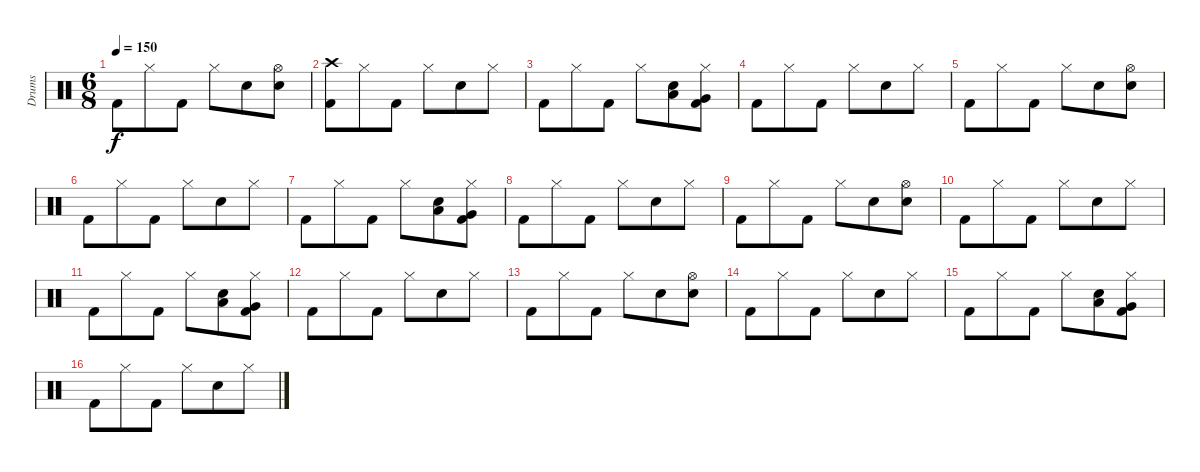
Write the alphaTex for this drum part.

\track ("Drums" "Drums") {mute instrument percussion}
\staff {score}
\articulation defaults
\ts (6 8)
\tempo 150
\clef neutral
\ks c "Kick (hit) 2".8{dy f} "Hi-Hat (closed)".8 "Kick (hit) 2".8 "Hi-Hat (closed)".8 "Electric Snare (hit)".8
("Hi-Hat (open)" "Electric Snare (hit)").8 |
("Crash high (hit)" "Kick (hit) 2").8 "Hi-Hat (closed)".8 "Kick (hit) 2".8 "Hi-Hat (closed)".8 "Electric Snare (hit)".8 "Hi-Hat (closed)".8 |
"Kick (hit) 2".8 "Hi-Hat (closed)".8 "Kick (hit) 2".8 "Hi-Hat (closed)".8 ("Low Tom (hit)" "Electric Snare (hit)").8 ("Very Low Tom (hit)" "Hi-Hat (closed)" "Kick (hit) 2").8 |
"Kick (hit) 2".8 "Hi-Hat (closed)".8 "Kick (hit) 2".8 "Hi-Hat (closed)".8 "Electric Snare (hit)".8 "Hi-Hat (closed)".8 |
"Kick (hit) 2".8 "Hi-Hat (closed)".8 "Kick (hit) 2".8 "Hi-Hat (closed)".8 "Electric Snare (hit)".8 ("Hi-Hat (open)" "Electric Snare (hit)").8 |
"Kick (hit) 2".8 "Hi-Hat (closed)".8 "Kick (hit) 2".8 "Hi-Hat (closed)".8 "Electric Snare (hit)".8 "Hi-Hat (closed)".8 |
"Kick (hit) 2".8 "Hi-Hat (closed)".8 "Kick (hit) 2".8 "Hi-Hat (closed)".8 ("Low Tom (hit)" "Electric Snare (hit)").8 ("Very Low Tom (hit)" "Hi-Hat (closed)" "Kick (hit) 2").8 |
"Kick (hit) 2".8 "Hi-Hat (closed)".8 "Kick (hit) 2".8 "Hi-Hat (closed)".8 "Electric Snare (hit)".8 "Hi-Hat (closed)".8 |
"Kick (hit) 2".8 "Hi-Hat (closed)".8 "Kick (hit) 2".8 "Hi-Hat (closed)".8 "Electric Snare (hit)".8 ("Hi-Hat (open)" "Electric Snare (hit)").8 |
"Kick (hit) 2".8 "Hi-Hat (closed)".8 "Kick (hit) 2".8 "Hi-Hat (closed)".8 "Electric Snare (hit)".8 "Hi-Hat (closed)".8 |
"Kick (hit) 2".8 "Hi-Hat (closed)".8 "Kick (hit) 2".8 "Hi-Hat (closed)".8 ("Low Tom (hit)" "Electric Snare (hit)").8 ("Very Low Tom (hit)" "Hi-Hat (closed)" "Kick (hit) 2").8 |
"Kick (hit) 2".8 "Hi-Hat (closed)".8 "Kick (hit) 2".8 "Hi-Hat (closed)".8 "Electric Snare (hit)".8 "Hi-Hat (closed)".8 |
"Kick (hit) 2".8 "Hi-Hat (closed)".8 "Kick (hit) 2".8 "Hi-Hat (closed)".8 "Electric Snare (hit)".8 ("Hi-Hat (open)" "Electric Snare (hit)").8 |
"Kick (hit) 2".8 "Hi-Hat (closed)".8 "Kick (hit) 2".8 "Hi-Hat (closed)".8 "Electric Snare (hit)".8 "Hi-Hat (closed)".8 |
"Kick (hit) 2".8 "Hi-Hat (closed)".8 "Kick (hit) 2".8 "Hi-Hat (closed)".8 ("Low Tom (hit)" "Electric Snare (hit)").8 ("Very Low Tom (hit)" "Hi-Hat (closed)" "Kick (hit) 2").8 |
"Kick (hit) 2".8 "Hi-Hat (closed)".8 "Kick (hit) 2".8 "Hi-Hat (closed)".8 "Electric Snare (hit)".8 "Hi-Hat (closed)".8
